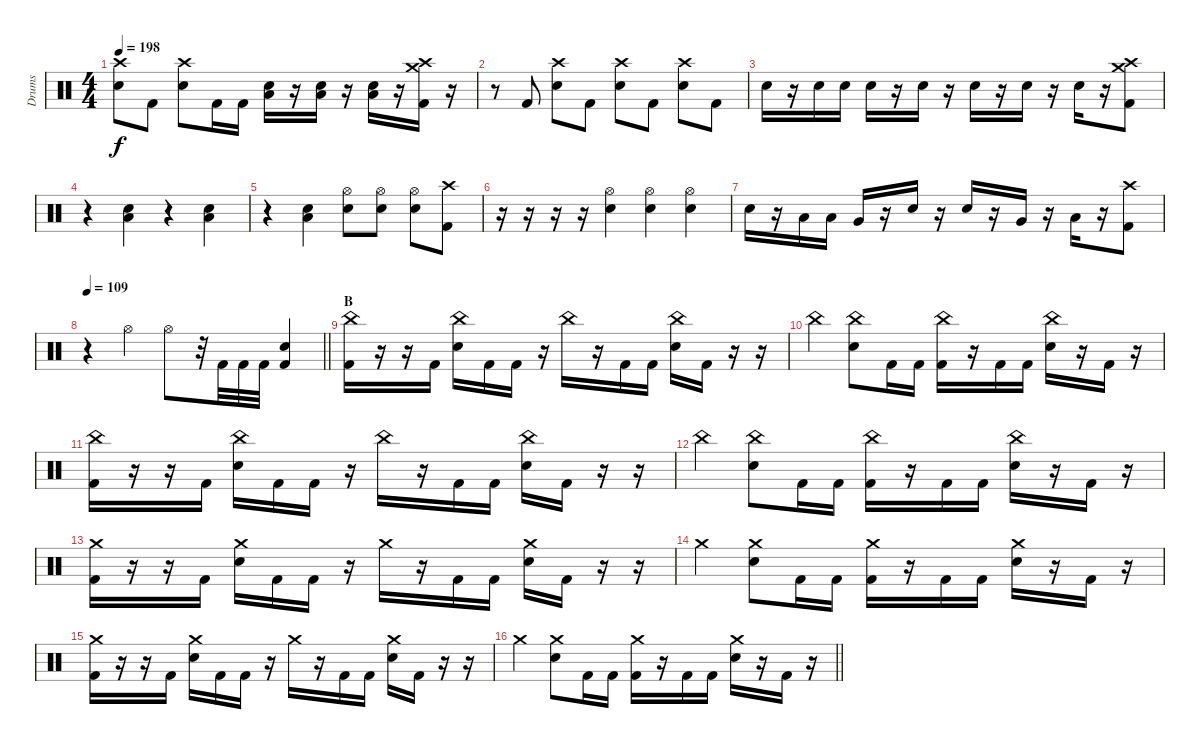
\track ("Drums" "Drums") {instrument percussion}
\staff {score}
\articulation defaults
\ts (4 4)
\tempo 198
\clef neutral
\ks c
("Crash high (hit)" "Electric Snare (hit)").8{dy f} "Kick (hit) 2".8 ("Crash high (hit)" "Electric Snare (hit)").8 "Kick (hit) 2".16 "Kick (hit) 2".16 ("Low Floor Tom (hit)" "Electric Snare (hit)").16 r.16 ("Low Floor Tom (hit)" "Electric Snare (hit)").16 r.16 ("Low Floor Tom (hit)" "Electric Snare (hit)").16 r.16 ("Crash high (hit)" "Crash medium (hit)" "Kick (hit) 2").16 r.16 |
r.8 "Kick (hit) 2".8 ("Crash high (hit)" "Electric Snare (hit)").8 "Kick (hit) 2".8 ("Crash high (hit)" "Electric Snare (hit)").8 "Kick (hit) 2".8 ("Crash high (hit)" "Electric Snare (hit)").8 "Kick (hit) 2".8 |
"Electric Snare (hit)".16 r.16 "Electric Snare (hit)".16 "Electric Snare (hit)".16 "Electric Snare (hit)".16 r.16 "Electric Snare (hit)".16 r.16 "Electric Snare (hit)".16 r.16 "Electric Snare (hit)".16 r.16 "Electric Snare (hit)".16 r.16 ("Crash high (hit)" "Crash medium (hit)" "Kick (hit) 2").8 |
r.4 ("Low Floor Tom (hit)" "Electric Snare (hit)").4 r.4 ("Low Floor Tom (hit)" "Electric Snare (hit)").4 |
r.4 ("Low Floor Tom (hit)" "Electric Snare (hit)").4 ("Hi-Hat (open)" "Electric Snare (hit)").8 ("Hi-Hat (open)" "Electric Snare (hit)").8 ("Hi-Hat (open)" "Electric Snare (hit)").8 ("Crash high (hit)" "Kick (hit) 2").8 |
r.16 r.16 r.16 r.16 ("Hi-Hat (open)" "Electric Snare (hit)").4 ("Hi-Hat (open)" "Electric Snare (hit)").4 ("Hi-Hat (open)" "Electric Snare (hit)").4 |
"Electric Snare (hit)".16 r.16 "Low Tom (hit)".16 "Low Tom (hit)".16 "Very Low Tom (hit)".16 r.16 "Electric Snare (hit)".16 r.16 "Electric Snare (hit)".16 r.16 "Very Low Tom (hit)".16 r.16 "Low Floor Tom (hit)".16 r.16 ("Crash high (hit)" "Kick (hit) 2").8 |
\tempo 109
\barLineRight lightlight
r.4 "Hi-Hat (open)".4 "Hi-Hat (open)".8 r.32 "Kick (hit) 2".32 "Kick (hit) 2".32 "Kick (hit) 2".32 ("Electric Snare (hit)" "Kick (hit) 2").4 |
\section ("" "B")
("China (hit)" "Kick (hit) 2").16 r.16 r.16 "Kick (hit) 2".16 ("China (hit)" "Electric Snare (hit)").16 "Kick (hit) 2".16 "Kick (hit) 2".16 r.16 "China (hit)".16 r.16 "Kick (hit) 2".16 "Kick (hit) 2".16 ("China (hit)" "Electric Snare (hit)").16 "Kick (hit) 2".16 r.16 r.16 |
"China (hit)".4 ("China (hit)" "Electric Snare (hit)").8 "Kick (hit) 2".16 "Kick (hit) 2".16 ("China (hit)" "Kick (hit) 2").16 r.16 "Kick (hit) 2".16 "Kick (hit) 2".16 ("China (hit)" "Electric Snare (hit)").16 r.16 "Kick (hit) 2".16 r.16 |
("China (hit)" "Kick (hit) 2").16 r.16 r.16 "Kick (hit) 2".16 ("China (hit)" "Electric Snare (hit)").16 "Kick (hit) 2".16 "Kick (hit) 2".16 r.16 "China (hit)".16 r.16 "Kick (hit) 2".16 "Kick (hit) 2".16 ("China (hit)" "Electric Snare (hit)").16 "Kick (hit) 2".16 r.16 r.16 |
"China (hit)".4 ("China (hit)" "Electric Snare (hit)").8 "Kick (hit) 2".16 "Kick (hit) 2".16 ("China (hit)" "Kick (hit) 2").16 r.16 "Kick (hit) 2".16 "Kick (hit) 2".16 ("China (hit)" "Electric Snare (hit)").16 r.16 "Kick (hit) 2".16 r.16 |
("Crash medium (hit)" "Kick (hit) 2").16 r.16 r.16 "Kick (hit) 2".16 ("Crash medium (hit)" "Electric Snare (hit)").16 "Kick (hit) 2".16 "Kick (hit) 2".16 r.16 "Crash medium (hit)".16 r.16 "Kick (hit) 2".16 "Kick (hit) 2".16 ("Crash medium (hit)" "Electric Snare (hit)").16 "Kick (hit) 2".16 r.16 r.16 |
"Crash medium (hit)".4 ("Crash medium (hit)" "Electric Snare (hit)").8 "Kick (hit) 2".16 "Kick (hit) 2".16 ("Crash medium (hit)" "Kick (hit) 2").16 r.16 "Kick (hit) 2".16 "Kick (hit) 2".16 ("Crash medium (hit)" "Electric Snare (hit)").16 r.16 "Kick (hit) 2".16 r.16 |
("Crash medium (hit)" "Kick (hit) 2").16 r.16 r.16 "Kick (hit) 2".16 ("Crash medium (hit)" "Electric Snare (hit)").16 "Kick (hit) 2".16 "Kick (hit) 2".16 r.16 "Crash medium (hit)".16 r.16 "Kick (hit) 2".16 "Kick (hit) 2".16 ("Crash medium (hit)" "Electric Snare (hit)").16 "Kick (hit) 2".16 r.16 r.16 |
\barLineRight lightlight "Crash medium (hit)".4
("Crash medium (hit)" "Electric Snare (hit)").8 "Kick (hit) 2".16 "Kick (hit) 2".16 ("Crash medium (hit)" "Kick (hit) 2").16 r.16 "Kick (hit) 2".16 "Kick (hit) 2".16 ("Crash medium (hit)" "Electric Snare (hit)").16 r.16 "Kick (hit) 2".16 r.16
